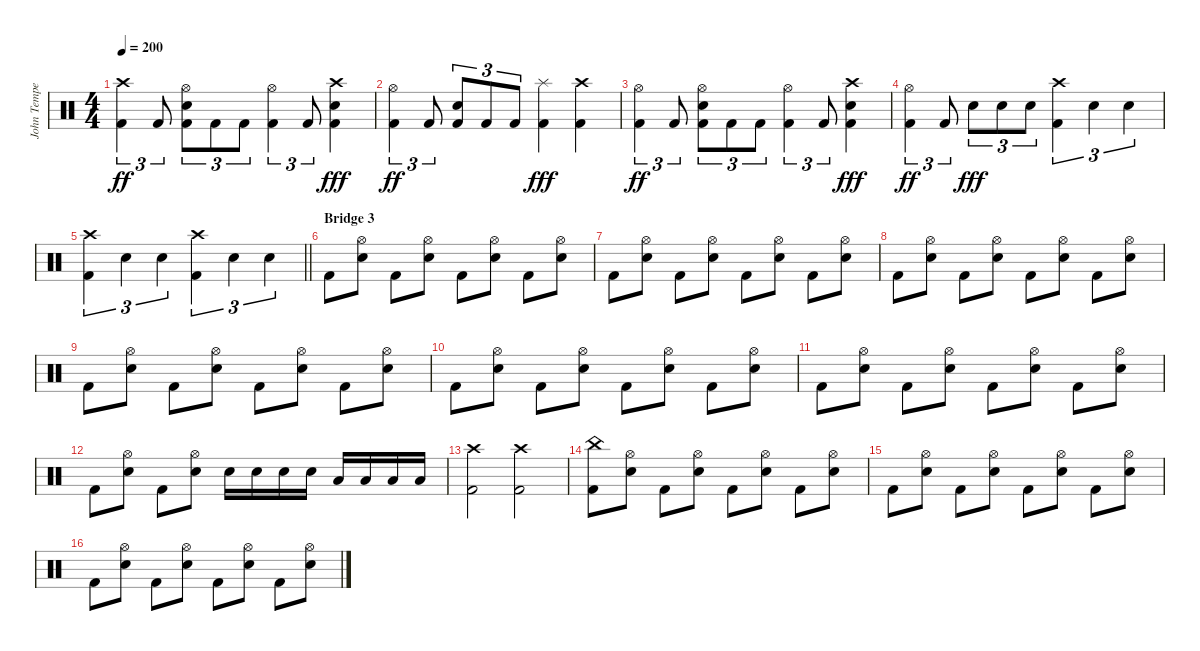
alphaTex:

\track ("John Tempesta" "John Tempe") {instrument percussion}
\staff {score}
\articulation defaults
\ts (4 4)
\tempo 200
\clef neutral
\ks c
("Crash high (hit)" "Kick (hit) 2").4{tu (3 2) dy ff} "Kick (hit) 2".8{tu (3 2)} ("Electric Snare (hit)" "Hi-Hat (open)" "Kick (hit) 2").8{tu (3 2)} "Kick (hit) 2".8{tu (3 2)} "Kick (hit) 2".8{tu (3 2)} ("Hi-Hat (open)" "Kick (hit) 2").4{tu (3 2)} "Kick (hit) 2".8{tu (3 2)} ("Electric Snare (hit)" "Crash high (hit)" "Kick (hit) 2").4{dy fff} |
("Hi-Hat (open)" "Kick (hit) 2").4{tu (3 2) dy ff} "Kick (hit) 2".8{tu (3 2)} ("Electric Snare (hit)" "Kick (hit) 2").8{tu (3 2)} "Kick (hit) 2".8{tu (3 2)} "Kick (hit) 2".8{tu (3 2)} ("Splash (hit)" "Kick (hit) 2").4{dy fff} ("Crash high (hit)" "Kick (hit) 2").4 |
("Hi-Hat (open)" "Kick (hit) 2").4{tu (3 2) dy ff} "Kick (hit) 2".8{tu (3 2)} ("Electric Snare (hit)" "Hi-Hat (open)" "Kick (hit) 2").8{tu (3 2)} "Kick (hit) 2".8{tu (3 2)} "Kick (hit) 2".8{tu (3 2)} ("Hi-Hat (open)" "Kick (hit) 2").4{tu (3 2)} "Kick (hit) 2".8{tu (3 2)} ("Electric Snare (hit)" "Crash high (hit)" "Kick (hit) 2").4{dy fff} |
("Hi-Hat (open)" "Kick (hit) 2").4{tu (3 2) dy ff} "Kick (hit) 2".8{tu (3 2)} "Electric Snare (hit)".8{tu (3 2) dy fff} "Electric Snare (hit)".8{tu (3 2)} "Electric Snare (hit)".8{tu (3 2)} ("Crash high (hit)" "Kick (hit) 2").4{tu (3 2)} "Electric Snare (hit)".4{tu (3 2)} "Electric Snare (hit)".4{tu (3 2)} |
\barLineRight lightlight
("Crash high (hit)" "Kick (hit) 2").4{tu (3 2)} "Electric Snare (hit)".4{tu (3 2)} "Electric Snare (hit)".4{tu (3 2)} ("Crash high (hit)" "Kick (hit) 2").4{tu (3 2)} "Electric Snare (hit)".4{tu (3 2)} "Electric Snare (hit)".4{tu (3 2)} |
\section ("" "Bridge 3")
"Kick (hit) 2".8 ("Electric Snare (hit)" "Hi-Hat (open)").8 "Kick (hit) 2".8 ("Electric Snare (hit)" "Hi-Hat (open)").8 "Kick (hit) 2".8 ("Electric Snare (hit)" "Hi-Hat (open)").8 "Kick (hit) 2".8 ("Electric Snare (hit)" "Hi-Hat (open)").8 |
"Kick (hit) 2".8 ("Electric Snare (hit)" "Hi-Hat (open)").8 "Kick (hit) 2".8 ("Electric Snare (hit)" "Hi-Hat (open)").8 "Kick (hit) 2".8 ("Electric Snare (hit)" "Hi-Hat (open)").8 "Kick (hit) 2".8 ("Electric Snare (hit)" "Hi-Hat (open)").8 |
"Kick (hit) 2".8 ("Electric Snare (hit)" "Hi-Hat (open)").8 "Kick (hit) 2".8 ("Electric Snare (hit)" "Hi-Hat (open)").8 "Kick (hit) 2".8 ("Electric Snare (hit)" "Hi-Hat (open)").8 "Kick (hit) 2".8 ("Electric Snare (hit)" "Hi-Hat (open)").8 |
"Kick (hit) 2".8 ("Electric Snare (hit)" "Hi-Hat (open)").8 "Kick (hit) 2".8 ("Electric Snare (hit)" "Hi-Hat (open)").8 "Kick (hit) 2".8 ("Electric Snare (hit)" "Hi-Hat (open)").8 "Kick (hit) 2".8 ("Electric Snare (hit)" "Hi-Hat (open)").8 |
"Kick (hit) 2".8 ("Electric Snare (hit)" "Hi-Hat (open)").8 "Kick (hit) 2".8 ("Electric Snare (hit)" "Hi-Hat (open)").8 "Kick (hit) 2".8 ("Electric Snare (hit)" "Hi-Hat (open)").8 "Kick (hit) 2".8 ("Electric Snare (hit)" "Hi-Hat (open)").8 |
"Kick (hit) 2".8 ("Electric Snare (hit)" "Hi-Hat (open)").8 "Kick (hit) 2".8 ("Electric Snare (hit)" "Hi-Hat (open)").8 "Kick (hit) 2".8 ("Electric Snare (hit)" "Hi-Hat (open)").8 "Kick (hit) 2".8 ("Electric Snare (hit)" "Hi-Hat (open)").8 |
"Kick (hit) 2".8 ("Electric Snare (hit)" "Hi-Hat (open)").8 "Kick (hit) 2".8 ("Electric Snare (hit)" "Hi-Hat (open)").8 "Electric Snare (hit)".16 "Electric Snare (hit)".16 "Electric Snare (hit)".16 "Electric Snare (hit)".16 "Low Floor Tom (hit)".16 "Low Floor Tom (hit)".16 "Low Floor Tom (hit)".16 "Low Floor Tom (hit)".16 |
("Crash high (hit)" "Kick (hit) 2").2 ("Crash high (hit)" "Kick (hit) 2").2 |
("China (hit)" "Kick (hit) 2").8 ("Electric Snare (hit)" "Hi-Hat (open)").8 "Kick (hit) 2".8 ("Electric Snare (hit)" "Hi-Hat (open)").8 "Kick (hit) 2".8 ("Electric Snare (hit)" "Hi-Hat (open)").8 "Kick (hit) 2".8 ("Electric Snare (hit)" "Hi-Hat (open)").8 |
"Kick (hit) 2".8 ("Electric Snare (hit)" "Hi-Hat (open)").8 "Kick (hit) 2".8 ("Electric Snare (hit)" "Hi-Hat (open)").8 "Kick (hit) 2".8 ("Electric Snare (hit)" "Hi-Hat (open)").8 "Kick (hit) 2".8 ("Electric Snare (hit)" "Hi-Hat (open)").8 |
"Kick (hit) 2".8 ("Electric Snare (hit)" "Hi-Hat (open)").8 "Kick (hit) 2".8 ("Electric Snare (hit)" "Hi-Hat (open)").8 "Kick (hit) 2".8 ("Electric Snare (hit)" "Hi-Hat (open)").8 "Kick (hit) 2".8 ("Electric Snare (hit)" "Hi-Hat (open)").8
